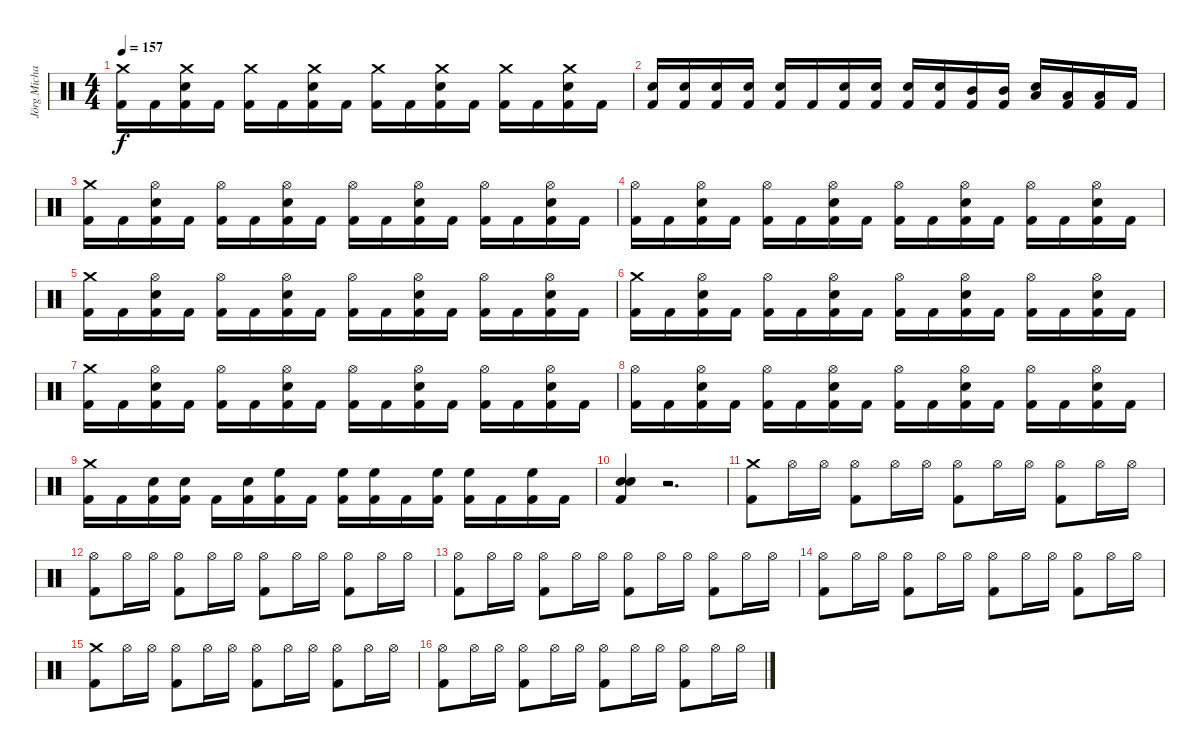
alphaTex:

\track ("Jörg Michael" "Jörg Micha") {instrument percussion}
\staff {score}
\articulation defaults
\ts (4 4)
\tempo 157
\clef neutral
\ks c
("Crash medium (hit)" "Kick (hit) 2").16{dy f} "Kick (hit) 2".16 ("Crash medium (hit)" "Snare (hit) 2" "Kick (hit) 2").16 "Kick (hit) 2".16 ("Crash medium (hit)" "Kick (hit) 2").16 "Kick (hit) 2".16 ("Crash medium (hit)" "Snare (hit) 2" "Kick (hit) 2").16 "Kick (hit) 2".16 ("Crash medium (hit)" "Kick (hit) 2").16 "Kick (hit) 2".16 ("Crash medium (hit)" "Snare (hit) 2" "Kick (hit) 2").16 "Kick (hit) 2".16 ("Crash medium (hit)" "Kick (hit) 2").16 "Kick (hit) 2".16 ("Crash medium (hit)" "Snare (hit) 2" "Kick (hit) 2").16 "Kick (hit) 2".16 |
("Snare (hit) 2" "Kick (hit) 2").16 ("Snare (hit) 2" "Kick (hit) 2").16 ("Snare (hit) 2" "Kick (hit) 2").16 ("Snare (hit) 2" "Kick (hit) 2").16 ("Snare (hit) 2" "Kick (hit) 2").16 "Kick (hit) 2".16 ("Snare (hit) 2" "Kick (hit) 2").16 ("Snare (hit) 2" "Kick (hit) 2").16 ("Snare (hit) 2" "Kick (hit) 2").16 ("Snare (hit) 2" "Kick (hit) 2").16 ("Mid Tom (hit)" "Kick (hit) 2").16 ("Mid Tom (hit)" "Kick (hit) 2").16 ("Low Tom (hit)" "Snare (hit) 2").16 ("Low Tom (hit)" "Kick (hit) 2").16 ("Low Tom (hit)" "Kick (hit) 2").16 "Kick (hit) 2".16 |
("Crash medium (hit)" "Kick (hit) 2").16 "Kick (hit) 2".16 ("Hi-Hat (open)" "Snare (hit) 2" "Kick (hit) 2").16 "Kick (hit) 2".16 ("Hi-Hat (open)" "Kick (hit) 2").16 "Kick (hit) 2".16 ("Hi-Hat (open)" "Snare (hit) 2" "Kick (hit) 2").16 "Kick (hit) 2".16 ("Hi-Hat (open)" "Kick (hit) 2").16 "Kick (hit) 2".16 ("Hi-Hat (open)" "Snare (hit) 2" "Kick (hit) 2").16 "Kick (hit) 2".16 ("Hi-Hat (open)" "Kick (hit) 2").16 "Kick (hit) 2".16 ("Hi-Hat (open)" "Snare (hit) 2" "Kick (hit) 2").16 "Kick (hit) 2".16 |
("Hi-Hat (open)" "Kick (hit) 2").16 "Kick (hit) 2".16 ("Hi-Hat (open)" "Snare (hit) 2" "Kick (hit) 2").16 "Kick (hit) 2".16 ("Hi-Hat (open)" "Kick (hit) 2").16 "Kick (hit) 2".16 ("Hi-Hat (open)" "Snare (hit) 2" "Kick (hit) 2").16 "Kick (hit) 2".16 ("Hi-Hat (open)" "Kick (hit) 2").16 "Kick (hit) 2".16 ("Hi-Hat (open)" "Snare (hit) 2" "Kick (hit) 2").16 "Kick (hit) 2".16 ("Hi-Hat (open)" "Kick (hit) 2").16 "Kick (hit) 2".16 ("Hi-Hat (open)" "Snare (hit) 2" "Kick (hit) 2").16 "Kick (hit) 2".16 |
("Crash medium (hit)" "Kick (hit) 2").16 "Kick (hit) 2".16 ("Hi-Hat (open)" "Snare (hit) 2" "Kick (hit) 2").16 "Kick (hit) 2".16 ("Hi-Hat (open)" "Kick (hit) 2").16 "Kick (hit) 2".16 ("Hi-Hat (open)" "Snare (hit) 2" "Kick (hit) 2").16 "Kick (hit) 2".16 ("Hi-Hat (open)" "Kick (hit) 2").16 "Kick (hit) 2".16 ("Hi-Hat (open)" "Snare (hit) 2" "Kick (hit) 2").16 "Kick (hit) 2".16 ("Hi-Hat (open)" "Kick (hit) 2").16 "Kick (hit) 2".16 ("Hi-Hat (open)" "Snare (hit) 2" "Kick (hit) 2").16 "Kick (hit) 2".16 |
("Crash medium (hit)" "Kick (hit) 2").16 "Kick (hit) 2".16 ("Hi-Hat (open)" "Snare (hit) 2" "Kick (hit) 2").16 "Kick (hit) 2".16 ("Hi-Hat (open)" "Kick (hit) 2").16 "Kick (hit) 2".16 ("Hi-Hat (open)" "Snare (hit) 2" "Kick (hit) 2").16 "Kick (hit) 2".16 ("Hi-Hat (open)" "Kick (hit) 2").16 "Kick (hit) 2".16 ("Hi-Hat (open)" "Snare (hit) 2" "Kick (hit) 2").16 "Kick (hit) 2".16 ("Hi-Hat (open)" "Kick (hit) 2").16 "Kick (hit) 2".16 ("Hi-Hat (open)" "Snare (hit) 2" "Kick (hit) 2").16 "Kick (hit) 2".16 |
("Crash medium (hit)" "Kick (hit) 2").16 "Kick (hit) 2".16 ("Hi-Hat (open)" "Snare (hit) 2" "Kick (hit) 2").16 "Kick (hit) 2".16 ("Hi-Hat (open)" "Kick (hit) 2").16 "Kick (hit) 2".16 ("Hi-Hat (open)" "Snare (hit) 2" "Kick (hit) 2").16 "Kick (hit) 2".16 ("Hi-Hat (open)" "Kick (hit) 2").16 "Kick (hit) 2".16 ("Hi-Hat (open)" "Snare (hit) 2" "Kick (hit) 2").16 "Kick (hit) 2".16 ("Hi-Hat (open)" "Kick (hit) 2").16 "Kick (hit) 2".16 ("Hi-Hat (open)" "Snare (hit) 2" "Kick (hit) 2").16 "Kick (hit) 2".16 |
("Hi-Hat (open)" "Kick (hit) 2").16 "Kick (hit) 2".16 ("Hi-Hat (open)" "Snare (hit) 2" "Kick (hit) 2").16 "Kick (hit) 2".16 ("Hi-Hat (open)" "Kick (hit) 2").16 "Kick (hit) 2".16 ("Hi-Hat (open)" "Snare (hit) 2" "Kick (hit) 2").16 "Kick (hit) 2".16 ("Hi-Hat (open)" "Kick (hit) 2").16 "Kick (hit) 2".16 ("Hi-Hat (open)" "Snare (hit) 2" "Kick (hit) 2").16 "Kick (hit) 2".16 ("Hi-Hat (open)" "Kick (hit) 2").16 "Kick (hit) 2".16 ("Hi-Hat (open)" "Snare (hit) 2" "Kick (hit) 2").16 "Kick (hit) 2".16 |
("Crash medium (hit)" "Kick (hit) 2").16 "Kick (hit) 2".16 ("Snare (hit) 2" "Kick (hit) 2").16 ("Snare (hit) 2" "Kick (hit) 2").16 "Kick (hit) 2".16 ("Snare (hit) 2" "Kick (hit) 2").16 ("High Floor Tom (hit)" "Kick (hit) 2").16 "Kick (hit) 2".16 ("High Floor Tom (hit)" "Kick (hit) 2").16 ("High Floor Tom (hit)" "Kick (hit) 2").16 "Kick (hit) 2".16 ("High Floor Tom (hit)" "Kick (hit) 2").16 ("High Floor Tom (hit)" "Kick (hit) 2").16 "Kick (hit) 2".16 ("High Floor Tom (hit)" "Kick (hit) 2").16 "Kick (hit) 2".16 |
("Snare (hit) 2" "Snare (hit) 2" "Kick (hit) 2").4 r.2{d} |
("Crash medium (hit)" "Kick (hit) 2").8 "Hi-Hat (open)".16 "Hi-Hat (open)".16 ("Hi-Hat (open)" "Kick (hit) 2").8 "Hi-Hat (open)".16 "Hi-Hat (open)".16 ("Hi-Hat (open)" "Kick (hit) 2").8 "Hi-Hat (open)".16 "Hi-Hat (open)".16 ("Hi-Hat (open)" "Kick (hit) 2").8 "Hi-Hat (open)".16 "Hi-Hat (open)".16 |
("Hi-Hat (open)" "Kick (hit) 2").8 "Hi-Hat (open)".16 "Hi-Hat (open)".16 ("Hi-Hat (open)" "Kick (hit) 2").8 "Hi-Hat (open)".16 "Hi-Hat (open)".16 ("Hi-Hat (open)" "Kick (hit) 2").8 "Hi-Hat (open)".16 "Hi-Hat (open)".16 ("Hi-Hat (open)" "Kick (hit) 2").8 "Hi-Hat (open)".16 "Hi-Hat (open)".16 |
("Hi-Hat (open)" "Kick (hit) 2").8 "Hi-Hat (open)".16 "Hi-Hat (open)".16 ("Hi-Hat (open)" "Kick (hit) 2").8 "Hi-Hat (open)".16 "Hi-Hat (open)".16 ("Hi-Hat (open)" "Kick (hit) 2").8 "Hi-Hat (open)".16 "Hi-Hat (open)".16 ("Hi-Hat (open)" "Kick (hit) 2").8 "Hi-Hat (open)".16 "Hi-Hat (open)".16 |
("Hi-Hat (open)" "Kick (hit) 2").8 "Hi-Hat (open)".16 "Hi-Hat (open)".16 ("Hi-Hat (open)" "Kick (hit) 2").8 "Hi-Hat (open)".16 "Hi-Hat (open)".16 ("Hi-Hat (open)" "Kick (hit) 2").8 "Hi-Hat (open)".16 "Hi-Hat (open)".16 ("Hi-Hat (open)" "Kick (hit) 2").8 "Hi-Hat (open)".16 "Hi-Hat (open)".16 |
("Crash medium (hit)" "Kick (hit) 2").8 "Hi-Hat (open)".16 "Hi-Hat (open)".16 ("Hi-Hat (open)" "Kick (hit) 2").8 "Hi-Hat (open)".16 "Hi-Hat (open)".16 ("Hi-Hat (open)" "Kick (hit) 2").8 "Hi-Hat (open)".16 "Hi-Hat (open)".16 ("Hi-Hat (open)" "Kick (hit) 2").8 "Hi-Hat (open)".16 "Hi-Hat (open)".16 |
("Hi-Hat (open)" "Kick (hit) 2").8 "Hi-Hat (open)".16 "Hi-Hat (open)".16 ("Hi-Hat (open)" "Kick (hit) 2").8 "Hi-Hat (open)".16 "Hi-Hat (open)".16 ("Hi-Hat (open)" "Kick (hit) 2").8 "Hi-Hat (open)".16 "Hi-Hat (open)".16 ("Hi-Hat (open)" "Kick (hit) 2").8 "Hi-Hat (open)".16 "Hi-Hat (open)".16
